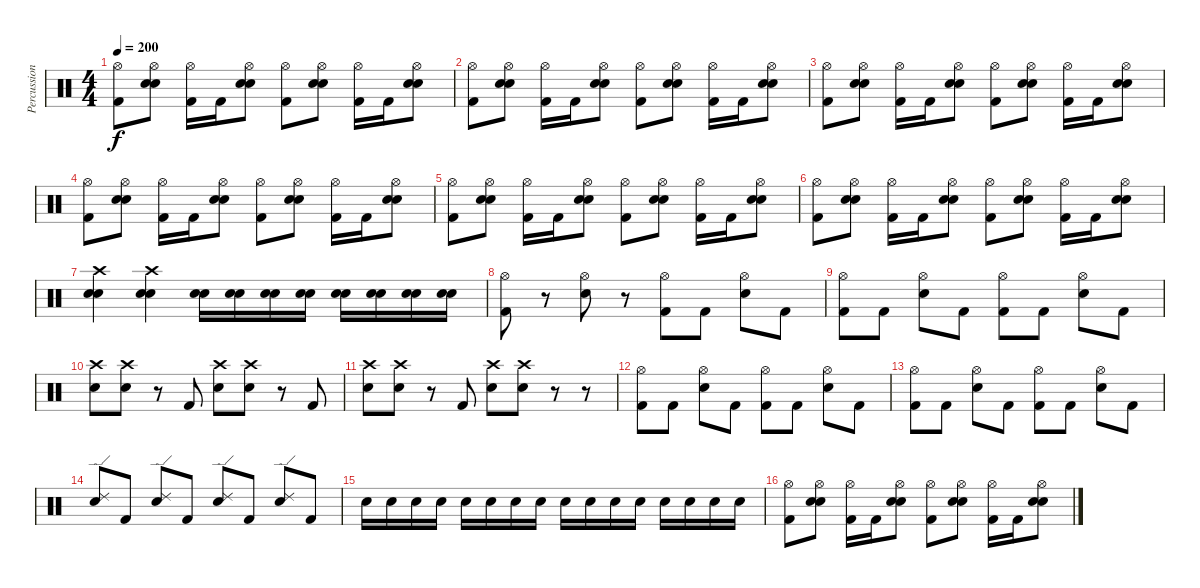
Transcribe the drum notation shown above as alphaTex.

\track ("Percussion" "Percussion") {instrument percussion}
\staff {score}
\articulation defaults
\ts (4 4)
\tempo 200
\clef neutral
\ks c
("Hi-Hat (open)" "Kick (hit) 2").8{dy f} ("Hi-Hat (open)" "Electric Snare (hit)" "Electric Snare (hit)").8 ("Hi-Hat (open)" "Kick (hit) 2").16 "Kick (hit) 2".16 ("Hi-Hat (open)" "Electric Snare (hit)" "Electric Snare (hit)").8 ("Hi-Hat (open)" "Kick (hit) 2").8 ("Hi-Hat (open)" "Electric Snare (hit)" "Electric Snare (hit)").8 ("Hi-Hat (open)" "Kick (hit) 2").16 "Kick (hit) 2".16 ("Hi-Hat (open)" "Electric Snare (hit)" "Electric Snare (hit)").8 |
("Hi-Hat (open)" "Kick (hit) 2").8 ("Hi-Hat (open)" "Electric Snare (hit)" "Electric Snare (hit)").8 ("Hi-Hat (open)" "Kick (hit) 2").16 "Kick (hit) 2".16 ("Hi-Hat (open)" "Electric Snare (hit)" "Electric Snare (hit)").8 ("Hi-Hat (open)" "Kick (hit) 2").8 ("Hi-Hat (open)" "Electric Snare (hit)" "Electric Snare (hit)").8 ("Hi-Hat (open)" "Kick (hit) 2").16 "Kick (hit) 2".16 ("Hi-Hat (open)" "Electric Snare (hit)" "Electric Snare (hit)").8 |
("Hi-Hat (open)" "Kick (hit) 2").8 ("Hi-Hat (open)" "Electric Snare (hit)" "Electric Snare (hit)").8 ("Hi-Hat (open)" "Kick (hit) 2").16 "Kick (hit) 2".16 ("Hi-Hat (open)" "Electric Snare (hit)" "Electric Snare (hit)").8 ("Hi-Hat (open)" "Kick (hit) 2").8 ("Hi-Hat (open)" "Electric Snare (hit)" "Electric Snare (hit)").8 ("Hi-Hat (open)" "Kick (hit) 2").16 "Kick (hit) 2".16 ("Hi-Hat (open)" "Electric Snare (hit)" "Electric Snare (hit)").8 |
("Hi-Hat (open)" "Kick (hit) 2").8 ("Hi-Hat (open)" "Electric Snare (hit)" "Electric Snare (hit)").8 ("Hi-Hat (open)" "Kick (hit) 2").16 "Kick (hit) 2".16 ("Hi-Hat (open)" "Electric Snare (hit)" "Electric Snare (hit)").8 ("Hi-Hat (open)" "Kick (hit) 2").8 ("Hi-Hat (open)" "Electric Snare (hit)" "Electric Snare (hit)").8 ("Hi-Hat (open)" "Kick (hit) 2").16 "Kick (hit) 2".16 ("Hi-Hat (open)" "Electric Snare (hit)" "Electric Snare (hit)").8 |
("Hi-Hat (open)" "Kick (hit) 2").8 ("Hi-Hat (open)" "Electric Snare (hit)" "Electric Snare (hit)").8 ("Hi-Hat (open)" "Kick (hit) 2").16 "Kick (hit) 2".16 ("Hi-Hat (open)" "Electric Snare (hit)" "Electric Snare (hit)").8 ("Hi-Hat (open)" "Kick (hit) 2").8 ("Hi-Hat (open)" "Electric Snare (hit)" "Electric Snare (hit)").8 ("Hi-Hat (open)" "Kick (hit) 2").16 "Kick (hit) 2".16 ("Hi-Hat (open)" "Electric Snare (hit)" "Electric Snare (hit)").8 |
("Hi-Hat (open)" "Kick (hit) 2").8 ("Hi-Hat (open)" "Electric Snare (hit)" "Electric Snare (hit)").8 ("Hi-Hat (open)" "Kick (hit) 2").16 "Kick (hit) 2".16 ("Hi-Hat (open)" "Electric Snare (hit)" "Electric Snare (hit)").8 ("Hi-Hat (open)" "Kick (hit) 2").8 ("Hi-Hat (open)" "Electric Snare (hit)" "Electric Snare (hit)").8 ("Hi-Hat (open)" "Kick (hit) 2").16 "Kick (hit) 2".16 ("Hi-Hat (open)" "Electric Snare (hit)" "Electric Snare (hit)").8 |
("Crash high (hit)" "Electric Snare (hit)" "Electric Snare (hit)").4 ("Crash high (hit)" "Electric Snare (hit)" "Electric Snare (hit)").4 ("Electric Snare (hit)" "Electric Snare (hit)").16 ("Electric Snare (hit)" "Electric Snare (hit)").16 ("Electric Snare (hit)" "Electric Snare (hit)").16 ("Electric Snare (hit)" "Electric Snare (hit)").16 ("Electric Snare (hit)" "Electric Snare (hit)").16 ("Electric Snare (hit)" "Electric Snare (hit)").16 ("Electric Snare (hit)" "Electric Snare (hit)").16 ("Electric Snare (hit)" "Electric Snare (hit)").16 |
("Hi-Hat (open)" "Kick (hit) 2").8 r.8 ("Hi-Hat (open)" "Electric Snare (hit)").8 r.8 ("Hi-Hat (open)" "Kick (hit) 2").8 "Kick (hit) 2".8 ("Hi-Hat (open)" "Electric Snare (hit)").8 "Kick (hit) 2".8 |
("Hi-Hat (open)" "Kick (hit) 2").8 "Kick (hit) 2".8 ("Hi-Hat (open)" "Electric Snare (hit)").8 "Kick (hit) 2".8 ("Hi-Hat (open)" "Kick (hit) 2").8 "Kick (hit) 2".8 ("Hi-Hat (open)" "Electric Snare (hit)").8 "Kick (hit) 2".8 |
("Crash high (hit)" "Electric Snare (hit)").8 ("Crash high (hit)" "Electric Snare (hit)").8 r.8 "Kick (hit) 2".8 ("Crash high (hit)" "Electric Snare (hit)").8 ("Crash high (hit)" "Electric Snare (hit)").8 r.8 "Kick (hit) 2".8 |
("Crash high (hit)" "Electric Snare (hit)").8 ("Crash high (hit)" "Electric Snare (hit)").8 r.8 "Kick (hit) 2".8 ("Crash high (hit)" "Electric Snare (hit)").8 ("Crash high (hit)" "Electric Snare (hit)").8 r.8 r.8 |
("Hi-Hat (open)" "Kick (hit) 2").8 "Kick (hit) 2".8 ("Hi-Hat (open)" "Electric Snare (hit)").8 "Kick (hit) 2".8 ("Hi-Hat (open)" "Kick (hit) 2").8 "Kick (hit) 2".8 ("Hi-Hat (open)" "Electric Snare (hit)").8 "Kick (hit) 2".8 |
("Hi-Hat (open)" "Kick (hit) 2").8 "Kick (hit) 2".8 ("Hi-Hat (open)" "Electric Snare (hit)").8 "Kick (hit) 2".8 ("Hi-Hat (open)" "Kick (hit) 2").8 "Kick (hit) 2".8 ("Hi-Hat (open)" "Electric Snare (hit)").8 "Kick (hit) 2".8 |
("Ride (edge) 2" "Electric Snare (hit)").8 "Kick (hit) 2".8 ("Ride (edge) 2" "Electric Snare (hit)").8 "Kick (hit) 2".8 ("Ride (edge) 2" "Electric Snare (hit)").8 "Kick (hit) 2".8 ("Ride (edge) 2" "Electric Snare (hit)").8 "Kick (hit) 2".8 |
"Electric Snare (hit)".16 "Electric Snare (hit)".16 "Electric Snare (hit)".16 "Electric Snare (hit)".16 "Electric Snare (hit)".16 "Electric Snare (hit)".16 "Electric Snare (hit)".16 "Electric Snare (hit)".16 "Electric Snare (hit)".16 "Electric Snare (hit)".16 "Electric Snare (hit)".16 "Electric Snare (hit)".16 "Electric Snare (hit)".16 "Electric Snare (hit)".16 "Electric Snare (hit)".16 "Electric Snare (hit)".16 |
("Hi-Hat (open)" "Kick (hit) 2").8 ("Hi-Hat (open)" "Electric Snare (hit)" "Electric Snare (hit)").8 ("Hi-Hat (open)" "Kick (hit) 2").16 "Kick (hit) 2".16 ("Hi-Hat (open)" "Electric Snare (hit)" "Electric Snare (hit)").8 ("Hi-Hat (open)" "Kick (hit) 2").8 ("Hi-Hat (open)" "Electric Snare (hit)" "Electric Snare (hit)").8 ("Hi-Hat (open)" "Kick (hit) 2").16 "Kick (hit) 2".16 ("Hi-Hat (open)" "Electric Snare (hit)" "Electric Snare (hit)").8
